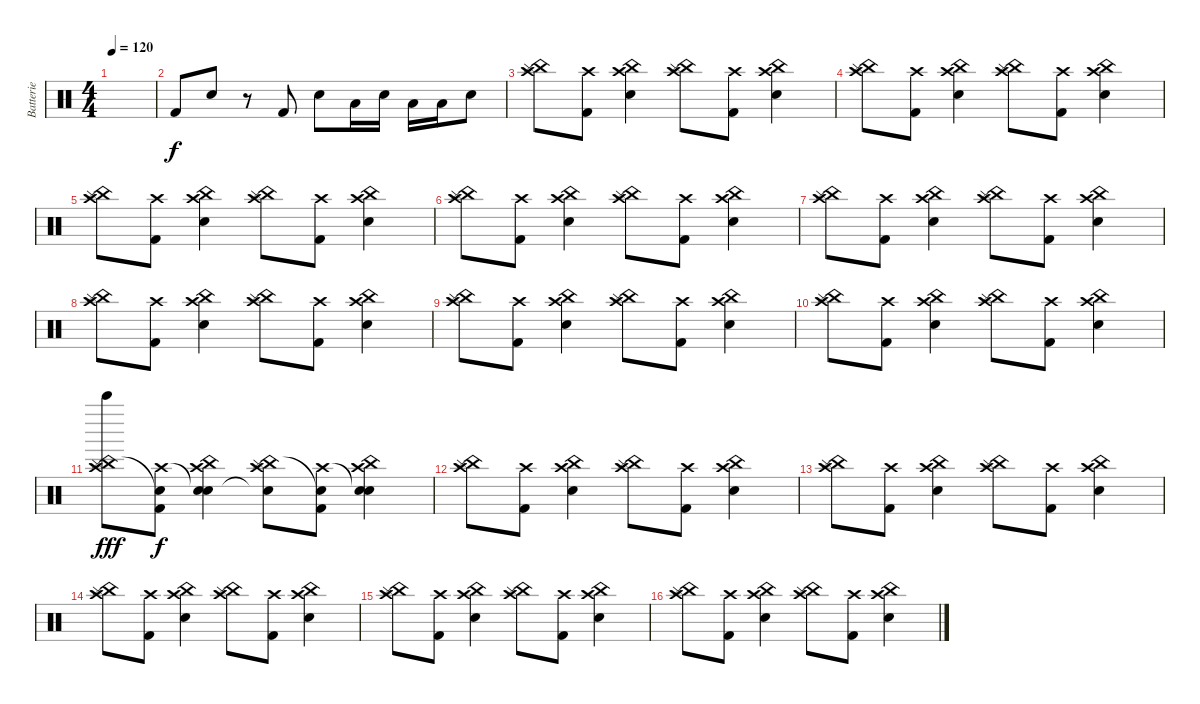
\track ("Batterie" "Batterie") {instrument percussion}
\staff {score}
\articulation defaults
\ts (4 4)
\tempo 120
\clef neutral
\ks c
|
"Kick (hit) 2".8 "Snare (hit) 2".8 r.8 "Kick (hit) 2".8 "Snare (hit) 2".8 "Low Tom (hit)".16 "Electric Snare (hit)".16 "Low Floor Tom (hit)".16 "Low Floor Tom (hit)".16 "Electric Snare (hit)".8 |
("China (hit)" "Crash high (hit)" "Cymbal (hit)").8 ("Crash high (hit)" "Kick (hit) 2").8 ("China (hit)" "Crash high (hit)" "Electric Snare (hit)").4 ("China (hit)" "Crash high (hit)" "Cymbal (hit)").8 ("Crash high (hit)" "Kick (hit) 2").8 ("China (hit)" "Crash high (hit)" "Electric Snare (hit)").4 |
("China (hit)" "Crash high (hit)" "Cymbal (hit)").8 ("Crash high (hit)" "Kick (hit) 2").8 ("China (hit)" "Crash high (hit)" "Electric Snare (hit)").4 ("China (hit)" "Crash high (hit)" "Cymbal (hit)").8 ("Crash high (hit)" "Kick (hit) 2").8 ("China (hit)" "Crash high (hit)" "Electric Snare (hit)").4 |
("China (hit)" "Crash high (hit)" "Cymbal (hit)").8 ("Crash high (hit)" "Kick (hit) 2").8 ("China (hit)" "Crash high (hit)" "Electric Snare (hit)").4 ("China (hit)" "Crash high (hit)" "Cymbal (hit)").8 ("Crash high (hit)" "Kick (hit) 2").8 ("China (hit)" "Crash high (hit)" "Electric Snare (hit)").4 |
("China (hit)" "Crash high (hit)" "Cymbal (hit)").8 ("Crash high (hit)" "Kick (hit) 2").8 ("China (hit)" "Crash high (hit)" "Electric Snare (hit)").4 ("China (hit)" "Crash high (hit)" "Cymbal (hit)").8 ("Crash high (hit)" "Kick (hit) 2").8 ("China (hit)" "Crash high (hit)" "Electric Snare (hit)").4 |
("China (hit)" "Crash high (hit)" "Cymbal (hit)").8 ("Crash high (hit)" "Kick (hit) 2").8 ("China (hit)" "Crash high (hit)" "Electric Snare (hit)").4 ("China (hit)" "Crash high (hit)" "Cymbal (hit)").8 ("Crash high (hit)" "Kick (hit) 2").8 ("China (hit)" "Crash high (hit)" "Electric Snare (hit)").4 |
("China (hit)" "Crash high (hit)" "Cymbal (hit)").8 ("Crash high (hit)" "Kick (hit) 2").8 ("China (hit)" "Crash high (hit)" "Electric Snare (hit)").4 ("China (hit)" "Crash high (hit)" "Cymbal (hit)").8 ("Crash high (hit)" "Kick (hit) 2").8 ("China (hit)" "Crash high (hit)" "Electric Snare (hit)").4 |
("China (hit)" "Crash high (hit)" "Cymbal (hit)").8 ("Crash high (hit)" "Kick (hit) 2").8 ("China (hit)" "Crash high (hit)" "Electric Snare (hit)").4 ("China (hit)" "Crash high (hit)" "Cymbal (hit)").8 ("Crash high (hit)" "Kick (hit) 2").8 ("China (hit)" "Crash high (hit)" "Electric Snare (hit)").4 |
("China (hit)" "Crash high (hit)" "Cymbal (hit)").8 ("Crash high (hit)" "Kick (hit) 2").8 ("China (hit)" "Crash high (hit)" "Electric Snare (hit)").4 ("China (hit)" "Crash high (hit)" "Cymbal (hit)").8 ("Crash high (hit)" "Kick (hit) 2").8 ("China (hit)" "Crash high (hit)" "Electric Snare (hit)").4 |
("China (hit)" "Bell Tree (hit)" "Crash high (hit)" "Cymbal (hit)").8{dy fff} ("Snare (hit)"{t} "Crash high (hit)" "Kick (hit) 2").8{dy f} ("China (hit)" "Snare (hit)"{t} "Crash high (hit)" "Electric Snare (hit)").4 ("China (hit)" "Snare (hit)"{t} "Crash high (hit)" "Cymbal (hit)").8 ("Snare (hit)"{t} "Crash high (hit)" "Kick (hit) 2").8 ("China (hit)" "Snare (hit)"{t} "Crash high (hit)" "Electric Snare (hit)").4 |
("China (hit)" "Crash high (hit)" "Cymbal (hit)").8 ("Crash high (hit)" "Kick (hit) 2").8 ("China (hit)" "Crash high (hit)" "Electric Snare (hit)").4 ("China (hit)" "Crash high (hit)" "Cymbal (hit)").8 ("Crash high (hit)" "Kick (hit) 2").8 ("China (hit)" "Crash high (hit)" "Electric Snare (hit)").4 |
("China (hit)" "Crash high (hit)" "Cymbal (hit)").8 ("Crash high (hit)" "Kick (hit) 2").8 ("China (hit)" "Crash high (hit)" "Electric Snare (hit)").4 ("China (hit)" "Crash high (hit)" "Cymbal (hit)").8 ("Crash high (hit)" "Kick (hit) 2").8 ("China (hit)" "Crash high (hit)" "Electric Snare (hit)").4 |
("China (hit)" "Crash high (hit)" "Cymbal (hit)").8 ("Crash high (hit)" "Kick (hit) 2").8 ("China (hit)" "Crash high (hit)" "Electric Snare (hit)").4 ("China (hit)" "Crash high (hit)" "Cymbal (hit)").8 ("Crash high (hit)" "Kick (hit) 2").8 ("China (hit)" "Crash high (hit)" "Electric Snare (hit)").4 |
("China (hit)" "Crash high (hit)" "Cymbal (hit)").8 ("Crash high (hit)" "Kick (hit) 2").8 ("China (hit)" "Crash high (hit)" "Electric Snare (hit)").4 ("China (hit)" "Crash high (hit)" "Cymbal (hit)").8 ("Crash high (hit)" "Kick (hit) 2").8 ("China (hit)" "Crash high (hit)" "Electric Snare (hit)").4 |
("China (hit)" "Crash high (hit)" "Cymbal (hit)").8 ("Crash high (hit)" "Kick (hit) 2").8 ("China (hit)" "Crash high (hit)" "Electric Snare (hit)").4 ("China (hit)" "Crash high (hit)" "Cymbal (hit)").8 ("Crash high (hit)" "Kick (hit) 2").8 ("China (hit)" "Crash high (hit)" "Electric Snare (hit)").4
